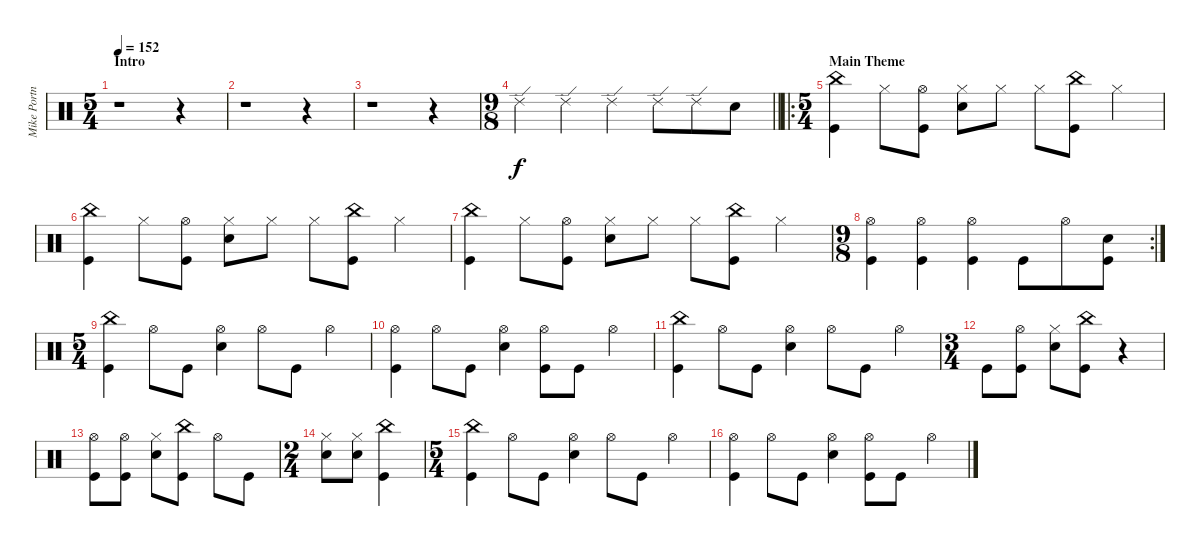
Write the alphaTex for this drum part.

\track ("Mike Portnoy (Drums)" "Mike Portn") {instrument percussion}
\staff {score}
\articulation defaults
\ts (5 4)
\section ("" "Intro")
\tempo 152
\clef neutral
\ks c
r.1{dy f} r.4 |
r.1 r.4 |
r.1 r.4 |
\ts (9 8)
\barLineRight lightlight "Ride (edge) 2".4 "Ride (edge) 2".4 "Ride (edge) 2".4 "Ride (edge) 2".8 "Ride (edge) 2".8 "Snare (hit) 2".8
|
\ro
\ts (5 4)
\section ("" "Main Theme")
("Kick (hit)" "China (hit)").4 "Hi-Hat (closed)".8 ("Kick (hit)" "Hi-Hat (open)").8 ("Snare (hit) 2" "Hi-Hat (closed)").8 "Hi-Hat (closed)".8 "Hi-Hat (closed)".8 ("Kick (hit)" "China (hit)").8 "Hi-Hat (closed)".4 |
("Kick (hit)" "China (hit)").4 "Hi-Hat (closed)".8 ("Kick (hit)" "Hi-Hat (open)").8 ("Snare (hit) 2" "Hi-Hat (closed)").8 "Hi-Hat (closed)".8 "Hi-Hat (closed)".8 ("Kick (hit)" "China (hit)").8 "Hi-Hat (closed)".4 |
("Kick (hit)" "China (hit)").4 "Hi-Hat (closed)".8 ("Kick (hit)" "Hi-Hat (open)").8 ("Snare (hit) 2" "Hi-Hat (closed)").8 "Hi-Hat (closed)".8 "Hi-Hat (closed)".8 ("Kick (hit)" "China (hit)").8 "Hi-Hat (closed)".4 |
\rc 2
\ts (9 8)
("Kick (hit)" "Hi-Hat (open)").4 ("Kick (hit)" "Hi-Hat (open)").4 ("Kick (hit)" "Hi-Hat (open)").4 "Kick (hit)".8 "Hi-Hat (open)".8 ("Kick (hit)" "Snare (hit) 2").8 |
\ts (5 4)
("Kick (hit)" "China (hit)").4 "Hi-Hat (open)".8 "Kick (hit)".8 ("Snare (hit) 2" "Hi-Hat (open)").4 "Hi-Hat (open)".8 "Kick (hit)".8 "Hi-Hat (open)".4 |
("Kick (hit)" "Hi-Hat (open)").4 "Hi-Hat (open)".8 "Kick (hit)".8 ("Snare (hit) 2" "Hi-Hat (open)").4 ("Kick (hit)" "Hi-Hat (open)").8 "Kick (hit)".8 "Hi-Hat (open)".4 |
("Kick (hit)" "China (hit)").4 "Hi-Hat (open)".8 "Kick (hit)".8 ("Snare (hit) 2" "Hi-Hat (open)").4 "Hi-Hat (open)".8 "Kick (hit)".8 "Hi-Hat (open)".4 |
\ts (3 4)
"Kick (hit)".8 ("Kick (hit)" "Hi-Hat (open)").8 ("Snare (hit) 2" "Hi-Hat (closed)").8 ("Kick (hit)" "China (hit)").8 r.4 |
("Kick (hit)" "Hi-Hat (open)").8 ("Kick (hit)" "Hi-Hat (open)").8 ("Snare (hit) 2" "Hi-Hat (closed)").8 ("Kick (hit)" "China (hit)").8 "Hi-Hat (open)".8 "Kick (hit)".8 |
\ts (2 4)
("Snare (hit) 2" "Hi-Hat (closed)").8 ("Snare (hit) 2" "Hi-Hat (closed)").8 ("Kick (hit)" "China (hit)").4 |
\ts (5 4)
("Kick (hit)" "China (hit)").4 "Hi-Hat (open)".8 "Kick (hit)".8 ("Snare (hit) 2" "Hi-Hat (open)").4 "Hi-Hat (open)".8 "Kick (hit)".8 "Hi-Hat (open)".4 |
("Kick (hit)" "Hi-Hat (open)").4 "Hi-Hat (open)".8 "Kick (hit)".8 ("Snare (hit) 2" "Hi-Hat (open)").4 ("Kick (hit)" "Hi-Hat (open)").8 "Kick (hit)".8 "Hi-Hat (open)".4
